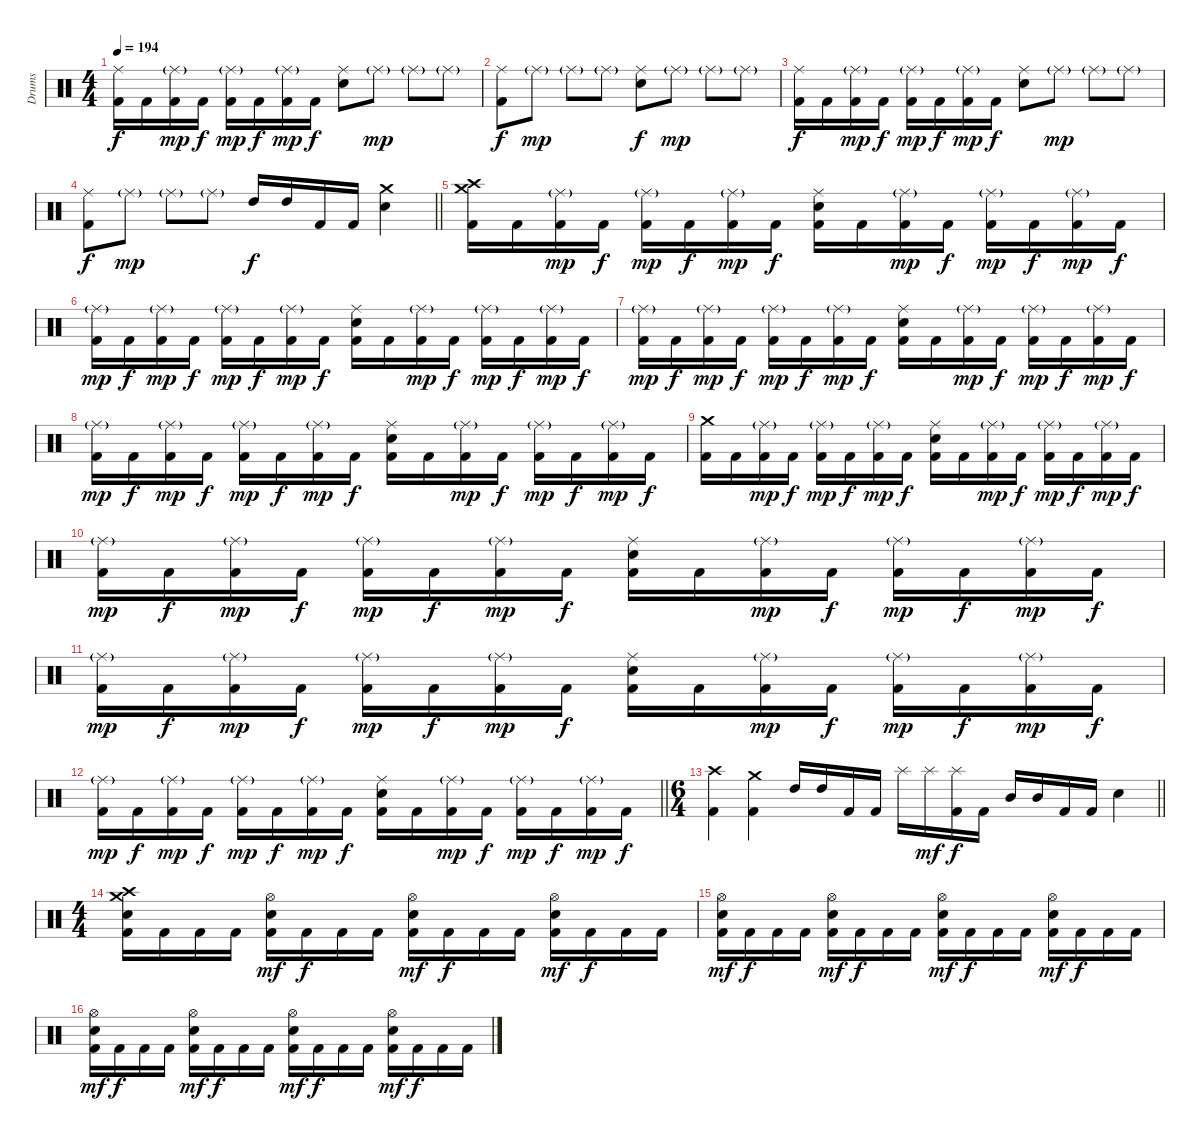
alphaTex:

\track ("Drums" "Drums") {instrument percussion}
\staff {score}
\articulation defaults
\ts (4 4)
\tempo 194
\clef neutral
\ks c
("Ride (middle)" "Kick (hit) 2").16{dy f} "Kick (hit) 2".16 ("Ride (middle)"{g} "Kick (hit) 2").16{dy mp} "Kick (hit) 2".16{dy f} ("Ride (middle)"{g} "Kick (hit) 2").16{dy mp} "Kick (hit) 2".16{dy f} ("Ride (middle)"{g} "Kick (hit) 2").16{dy mp} "Kick (hit) 2".16{dy f} ("Ride (middle)" "Electric Snare (hit)").8 "Ride (middle)"{g}.8{dy mp} "Ride (middle)"{g}.8 "Ride (middle)"{g}.8 |
("Ride (middle)" "Kick (hit) 2").8{dy f} "Ride (middle)"{g}.8{dy mp} "Ride (middle)"{g}.8 "Ride (middle)"{g}.8 ("Ride (middle)" "Electric Snare (hit)").8{dy f} "Ride (middle)"{g}.8{dy mp} "Ride (middle)"{g}.8 "Ride (middle)"{g}.8 |
("Ride (middle)" "Kick (hit) 2").16{dy f} "Kick (hit) 2".16 ("Ride (middle)"{g} "Kick (hit) 2").16{dy mp} "Kick (hit) 2".16{dy f} ("Ride (middle)"{g} "Kick (hit) 2").16{dy mp} "Kick (hit) 2".16{dy f} ("Ride (middle)"{g} "Kick (hit) 2").16{dy mp} "Kick (hit) 2".16{dy f} ("Ride (middle)" "Electric Snare (hit)").8 "Ride (middle)"{g}.8{dy mp} "Ride (middle)"{g}.8 "Ride (middle)"{g}.8 |
\barLineRight lightlight
("Ride (middle)" "Kick (hit) 2").8{dy f} "Ride (middle)"{g}.8{dy mp} "Ride (middle)"{g}.8 "Ride (middle)"{g}.8 "High Tom (hit)".16{dy f} "High Tom (hit)".16 "Kick (hit) 2".16 "Kick (hit) 2".16 ("Crash medium (hit)" "Electric Snare (hit)").4 |
("Crash high (hit)" "Crash medium (hit)" "Kick (hit) 2").16 "Kick (hit) 2".16 ("Ride (middle)"{g} "Kick (hit) 2").16{dy mp} "Kick (hit) 2".16{dy f} ("Ride (middle)"{g} "Kick (hit) 2").16{dy mp} "Kick (hit) 2".16{dy f} ("Ride (middle)"{g} "Kick (hit) 2").16{dy mp} "Kick (hit) 2".16{dy f} ("Ride (middle)" "Electric Snare (hit)" "Kick (hit) 2").16 "Kick (hit) 2".16 ("Ride (middle)"{g} "Kick (hit) 2").16{dy mp} "Kick (hit) 2".16{dy f} ("Ride (middle)"{g} "Kick (hit) 2").16{dy mp} "Kick (hit) 2".16{dy f} ("Ride (middle)"{g} "Kick (hit) 2").16{dy mp} "Kick (hit) 2".16{dy f} |
("Ride (middle)"{g} "Kick (hit) 2").16{dy mp} "Kick (hit) 2".16{dy f} ("Ride (middle)"{g} "Kick (hit) 2").16{dy mp} "Kick (hit) 2".16{dy f} ("Ride (middle)"{g} "Kick (hit) 2").16{dy mp} "Kick (hit) 2".16{dy f} ("Ride (middle)"{g} "Kick (hit) 2").16{dy mp} "Kick (hit) 2".16{dy f} ("Ride (middle)" "Electric Snare (hit)" "Kick (hit) 2").16 "Kick (hit) 2".16 ("Ride (middle)"{g} "Kick (hit) 2").16{dy mp} "Kick (hit) 2".16{dy f} ("Ride (middle)"{g} "Kick (hit) 2").16{dy mp} "Kick (hit) 2".16{dy f} ("Ride (middle)"{g} "Kick (hit) 2").16{dy mp} "Kick (hit) 2".16{dy f} |
("Ride (middle)"{g} "Kick (hit) 2").16{dy mp} "Kick (hit) 2".16{dy f} ("Ride (middle)"{g} "Kick (hit) 2").16{dy mp} "Kick (hit) 2".16{dy f} ("Ride (middle)"{g} "Kick (hit) 2").16{dy mp} "Kick (hit) 2".16{dy f} ("Ride (middle)"{g} "Kick (hit) 2").16{dy mp} "Kick (hit) 2".16{dy f} ("Ride (middle)" "Electric Snare (hit)" "Kick (hit) 2").16 "Kick (hit) 2".16 ("Ride (middle)"{g} "Kick (hit) 2").16{dy mp} "Kick (hit) 2".16{dy f} ("Ride (middle)"{g} "Kick (hit) 2").16{dy mp} "Kick (hit) 2".16{dy f} ("Ride (middle)"{g} "Kick (hit) 2").16{dy mp} "Kick (hit) 2".16{dy f} |
("Ride (middle)"{g} "Kick (hit) 2").16{dy mp} "Kick (hit) 2".16{dy f} ("Ride (middle)"{g} "Kick (hit) 2").16{dy mp} "Kick (hit) 2".16{dy f} ("Ride (middle)"{g} "Kick (hit) 2").16{dy mp} "Kick (hit) 2".16{dy f} ("Ride (middle)"{g} "Kick (hit) 2").16{dy mp} "Kick (hit) 2".16{dy f} ("Ride (middle)" "Electric Snare (hit)" "Kick (hit) 2").16 "Kick (hit) 2".16 ("Ride (middle)"{g} "Kick (hit) 2").16{dy mp} "Kick (hit) 2".16{dy f} ("Ride (middle)"{g} "Kick (hit) 2").16{dy mp} "Kick (hit) 2".16{dy f} ("Ride (middle)"{g} "Kick (hit) 2").16{dy mp} "Kick (hit) 2".16{dy f} |
("Crash medium (hit)" "Kick (hit) 2").16 "Kick (hit) 2".16 ("Ride (middle)"{g} "Kick (hit) 2").16{dy mp} "Kick (hit) 2".16{dy f} ("Ride (middle)"{g} "Kick (hit) 2").16{dy mp} "Kick (hit) 2".16{dy f} ("Ride (middle)"{g} "Kick (hit) 2").16{dy mp} "Kick (hit) 2".16{dy f} ("Ride (middle)" "Electric Snare (hit)" "Kick (hit) 2").16 "Kick (hit) 2".16 ("Ride (middle)"{g} "Kick (hit) 2").16{dy mp} "Kick (hit) 2".16{dy f} ("Ride (middle)"{g} "Kick (hit) 2").16{dy mp} "Kick (hit) 2".16{dy f} ("Ride (middle)"{g} "Kick (hit) 2").16{dy mp} "Kick (hit) 2".16{dy f} |
("Ride (middle)"{g} "Kick (hit) 2").16{dy mp} "Kick (hit) 2".16{dy f} ("Ride (middle)"{g} "Kick (hit) 2").16{dy mp} "Kick (hit) 2".16{dy f} ("Ride (middle)"{g} "Kick (hit) 2").16{dy mp} "Kick (hit) 2".16{dy f} ("Ride (middle)"{g} "Kick (hit) 2").16{dy mp} "Kick (hit) 2".16{dy f} ("Ride (middle)" "Electric Snare (hit)" "Kick (hit) 2").16 "Kick (hit) 2".16 ("Ride (middle)"{g} "Kick (hit) 2").16{dy mp} "Kick (hit) 2".16{dy f} ("Ride (middle)"{g} "Kick (hit) 2").16{dy mp} "Kick (hit) 2".16{dy f} ("Ride (middle)"{g} "Kick (hit) 2").16{dy mp} "Kick (hit) 2".16{dy f} |
("Ride (middle)"{g} "Kick (hit) 2").16{dy mp} "Kick (hit) 2".16{dy f} ("Ride (middle)"{g} "Kick (hit) 2").16{dy mp} "Kick (hit) 2".16{dy f} ("Ride (middle)"{g} "Kick (hit) 2").16{dy mp} "Kick (hit) 2".16{dy f} ("Ride (middle)"{g} "Kick (hit) 2").16{dy mp} "Kick (hit) 2".16{dy f} ("Ride (middle)" "Electric Snare (hit)" "Kick (hit) 2").16 "Kick (hit) 2".16 ("Ride (middle)"{g} "Kick (hit) 2").16{dy mp} "Kick (hit) 2".16{dy f} ("Ride (middle)"{g} "Kick (hit) 2").16{dy mp} "Kick (hit) 2".16{dy f} ("Ride (middle)"{g} "Kick (hit) 2").16{dy mp} "Kick (hit) 2".16{dy f} |
\barLineRight lightlight
("Ride (middle)"{g} "Kick (hit) 2").16{dy mp} "Kick (hit) 2".16{dy f} ("Ride (middle)"{g} "Kick (hit) 2").16{dy mp} "Kick (hit) 2".16{dy f} ("Ride (middle)"{g} "Kick (hit) 2").16{dy mp} "Kick (hit) 2".16{dy f} ("Ride (middle)"{g} "Kick (hit) 2").16{dy mp} "Kick (hit) 2".16{dy f} ("Ride (middle)" "Electric Snare (hit)" "Kick (hit) 2").16 "Kick (hit) 2".16 ("Ride (middle)"{g} "Kick (hit) 2").16{dy mp} "Kick (hit) 2".16{dy f} ("Ride (middle)"{g} "Kick (hit) 2").16{dy mp} "Kick (hit) 2".16{dy f} ("Ride (middle)"{g} "Kick (hit) 2").16{dy mp} "Kick (hit) 2".16{dy f} |
\ts (6 4)
\barLineRight lightlight
("Crash high (hit)" "Kick (hit) 2").4 ("Crash medium (hit)" "Kick (hit) 2").4 "High Tom (hit)".16 "High Tom (hit)".16 "Kick (hit) 2".16 "Kick (hit) 2".16 "Splash (hit)".16{balance 5} "Splash (hit)".16{dy mf balance 11} ("Splash (hit)" "Kick (hit) 2").16{dy f balance 6} "Kick (hit) 2".16{balance 8} "Mid Tom (hit)".16 "Mid Tom (hit)".16 "Kick (hit) 2".16 "Kick (hit) 2".16 "Electric Snare (hit)".4 |
\ts (4 4)
("Crash high (hit)" "Crash medium (hit)" "Electric Snare (hit)" "Kick (hit) 2").16 "Kick (hit) 2".16 "Kick (hit) 2".16 "Kick (hit) 2".16 ("Hi-Hat (open)" "Electric Snare (hit)" "Kick (hit) 2").16{dy mf} "Kick (hit) 2".16{dy f} "Kick (hit) 2".16 "Kick (hit) 2".16 ("Hi-Hat (open)" "Electric Snare (hit)" "Kick (hit) 2").16{dy mf} "Kick (hit) 2".16{dy f} "Kick (hit) 2".16 "Kick (hit) 2".16 ("Hi-Hat (open)" "Electric Snare (hit)" "Kick (hit) 2").16{dy mf} "Kick (hit) 2".16{dy f} "Kick (hit) 2".16 "Kick (hit) 2".16 |
("Hi-Hat (open)" "Electric Snare (hit)" "Kick (hit) 2").16{dy mf} "Kick (hit) 2".16{dy f} "Kick (hit) 2".16 "Kick (hit) 2".16 ("Hi-Hat (open)" "Electric Snare (hit)" "Kick (hit) 2").16{dy mf} "Kick (hit) 2".16{dy f} "Kick (hit) 2".16 "Kick (hit) 2".16 ("Hi-Hat (open)" "Electric Snare (hit)" "Kick (hit) 2").16{dy mf} "Kick (hit) 2".16{dy f} "Kick (hit) 2".16 "Kick (hit) 2".16 ("Hi-Hat (open)" "Electric Snare (hit)" "Kick (hit) 2").16{dy mf} "Kick (hit) 2".16{dy f} "Kick (hit) 2".16 "Kick (hit) 2".16 |
("Hi-Hat (open)" "Electric Snare (hit)" "Kick (hit) 2").16{dy mf} "Kick (hit) 2".16{dy f} "Kick (hit) 2".16 "Kick (hit) 2".16 ("Hi-Hat (open)" "Electric Snare (hit)" "Kick (hit) 2").16{dy mf} "Kick (hit) 2".16{dy f} "Kick (hit) 2".16 "Kick (hit) 2".16 ("Hi-Hat (open)" "Electric Snare (hit)" "Kick (hit) 2").16{dy mf} "Kick (hit) 2".16{dy f} "Kick (hit) 2".16 "Kick (hit) 2".16 ("Hi-Hat (open)" "Electric Snare (hit)" "Kick (hit) 2").16{dy mf} "Kick (hit) 2".16{dy f} "Kick (hit) 2".16 "Kick (hit) 2".16
